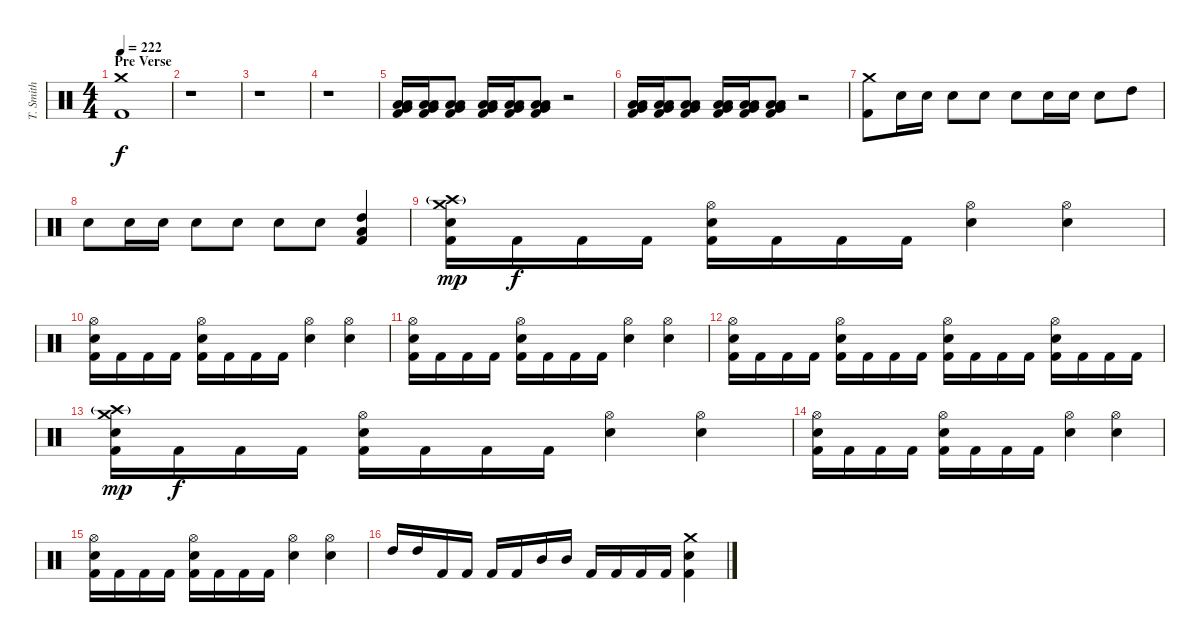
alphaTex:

\track ("T. Smith" "T. Smith") {instrument percussion}
\staff {score}
\articulation defaults
\ts (4 4)
\section ("" "Pre Verse")
\tempo 222
\clef neutral
\ks c
("Crash medium (hit)" "Kick (hit) 2").1{dy f} |
r.1 |
r.1 |
r.1 |
("Low Tom (hit)" "Low Tom (hit)" "Very Low Tom (hit)" "Kick (hit) 2").16 ("Low Tom (hit)" "Low Tom (hit)" "Very Low Tom (hit)" "Kick (hit) 2").16 ("Low Tom (hit)" "Low Tom (hit)" "Very Low Tom (hit)" "Kick (hit) 2").8 ("Low Tom (hit)" "Low Tom (hit)" "Very Low Tom (hit)" "Kick (hit) 2").16 ("Low Tom (hit)" "Low Tom (hit)" "Very Low Tom (hit)" "Kick (hit) 2").16 ("Low Tom (hit)" "Low Tom (hit)" "Very Low Tom (hit)" "Kick (hit) 2").8 r.2 |
("Low Tom (hit)" "Low Tom (hit)" "Very Low Tom (hit)" "Kick (hit) 2").16 ("Low Tom (hit)" "Low Tom (hit)" "Very Low Tom (hit)" "Kick (hit) 2").16 ("Low Tom (hit)" "Low Tom (hit)" "Very Low Tom (hit)" "Kick (hit) 2").8 ("Low Tom (hit)" "Low Tom (hit)" "Very Low Tom (hit)" "Kick (hit) 2").16 ("Low Tom (hit)" "Low Tom (hit)" "Very Low Tom (hit)" "Kick (hit) 2").16 ("Low Tom (hit)" "Low Tom (hit)" "Very Low Tom (hit)" "Kick (hit) 2").8 r.2 |
("Crash medium (hit)" "Kick (hit) 2").8 "Electric Snare (hit)".16 "Electric Snare (hit)".16 "Electric Snare (hit)".8 "Electric Snare (hit)".8 "Electric Snare (hit)".8 "Electric Snare (hit)".16 "Electric Snare (hit)".16 "Electric Snare (hit)".8 "High Tom (hit)".8 |
"Electric Snare (hit)".8 "Electric Snare (hit)".16 "Electric Snare (hit)".16 "Electric Snare (hit)".8 "Electric Snare (hit)".8 "Electric Snare (hit)".8 "Electric Snare (hit)".8 ("High Tom (hit)" "Low Tom (hit)" "Kick (hit) 2").4 |
("Crash medium (hit)" "Crash high (hit)"{g} "Electric Snare (hit)" "Kick (hit) 2").16{dy mp} "Kick (hit) 2".16{dy f} "Kick (hit) 2".16 "Kick (hit) 2".16 ("Hi-Hat (open)" "Electric Snare (hit)" "Kick (hit) 2").16 "Kick (hit) 2".16 "Kick (hit) 2".16 "Kick (hit) 2".16 ("Hi-Hat (open)" "Electric Snare (hit)").4 ("Hi-Hat (open)" "Electric Snare (hit)").4 |
("Hi-Hat (open)" "Electric Snare (hit)" "Kick (hit) 2").16 "Kick (hit) 2".16 "Kick (hit) 2".16 "Kick (hit) 2".16 ("Hi-Hat (open)" "Electric Snare (hit)" "Kick (hit) 2").16 "Kick (hit) 2".16 "Kick (hit) 2".16 "Kick (hit) 2".16 ("Hi-Hat (open)" "Electric Snare (hit)").4 ("Hi-Hat (open)" "Electric Snare (hit)").4 |
("Hi-Hat (open)" "Electric Snare (hit)" "Kick (hit) 2").16 "Kick (hit) 2".16 "Kick (hit) 2".16 "Kick (hit) 2".16 ("Hi-Hat (open)" "Electric Snare (hit)" "Kick (hit) 2").16 "Kick (hit) 2".16 "Kick (hit) 2".16 "Kick (hit) 2".16 ("Hi-Hat (open)" "Electric Snare (hit)").4 ("Hi-Hat (open)" "Electric Snare (hit)").4 |
("Hi-Hat (open)" "Electric Snare (hit)" "Kick (hit) 2").16 "Kick (hit) 2".16 "Kick (hit) 2".16 "Kick (hit) 2".16 ("Hi-Hat (open)" "Electric Snare (hit)" "Kick (hit) 2").16 "Kick (hit) 2".16 "Kick (hit) 2".16 "Kick (hit) 2".16 ("Hi-Hat (open)" "Electric Snare (hit)" "Kick (hit) 2").16 "Kick (hit) 2".16 "Kick (hit) 2".16 "Kick (hit) 2".16 ("Hi-Hat (open)" "Electric Snare (hit)" "Kick (hit) 2").16 "Kick (hit) 2".16 "Kick (hit) 2".16 "Kick (hit) 2".16 |
("Crash medium (hit)" "Crash high (hit)"{g} "Electric Snare (hit)" "Kick (hit) 2").16{dy mp} "Kick (hit) 2".16{dy f} "Kick (hit) 2".16 "Kick (hit) 2".16 ("Hi-Hat (open)" "Electric Snare (hit)" "Kick (hit) 2").16 "Kick (hit) 2".16 "Kick (hit) 2".16 "Kick (hit) 2".16 ("Hi-Hat (open)" "Electric Snare (hit)").4 ("Hi-Hat (open)" "Electric Snare (hit)").4 |
("Hi-Hat (open)" "Electric Snare (hit)" "Kick (hit) 2").16 "Kick (hit) 2".16 "Kick (hit) 2".16 "Kick (hit) 2".16 ("Hi-Hat (open)" "Electric Snare (hit)" "Kick (hit) 2").16 "Kick (hit) 2".16 "Kick (hit) 2".16 "Kick (hit) 2".16 ("Hi-Hat (open)" "Electric Snare (hit)").4 ("Hi-Hat (open)" "Electric Snare (hit)").4 |
("Hi-Hat (open)" "Electric Snare (hit)" "Kick (hit) 2").16 "Kick (hit) 2".16 "Kick (hit) 2".16 "Kick (hit) 2".16 ("Hi-Hat (open)" "Electric Snare (hit)" "Kick (hit) 2").16 "Kick (hit) 2".16 "Kick (hit) 2".16 "Kick (hit) 2".16 ("Hi-Hat (open)" "Electric Snare (hit)").4 ("Hi-Hat (open)" "Electric Snare (hit)").4 |
"High Tom (hit)".16 "High Tom (hit)".16 "Kick (hit) 2".16 "Kick (hit) 2".16 "Kick (hit) 2".16 "Kick (hit) 2".16 "Mid Tom (hit)".16 "Mid Tom (hit)".16 "Kick (hit) 2".16 "Kick (hit) 2".16 "Kick (hit) 2".16 "Kick (hit) 2".16 ("Crash medium (hit)" "Electric Snare (hit)" "Kick (hit) 2").4
